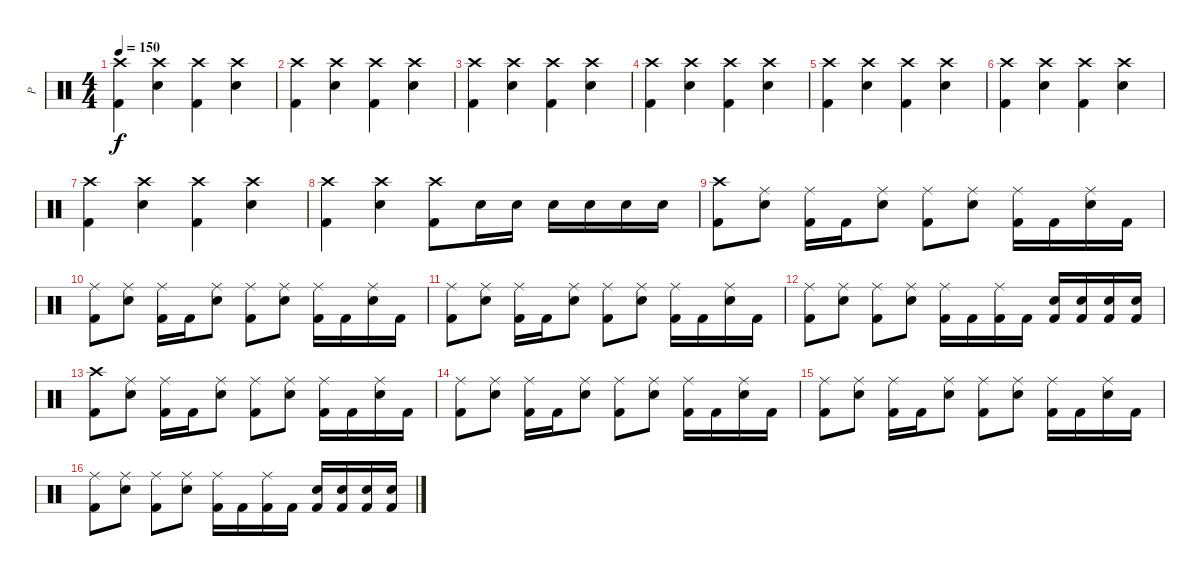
\track ("P" "P") {instrument percussion}
\staff {score}
\articulation defaults
\ts (4 4)
\tempo 150
\clef neutral
\ks c
("Crash high (hit)" "Kick (hit) 2").4{dy f} ("Crash high (hit)" "Electric Snare (hit)").4 ("Crash high (hit)" "Kick (hit) 2").4 ("Crash high (hit)" "Electric Snare (hit)").4 |
("Crash high (hit)" "Kick (hit) 2").4 ("Crash high (hit)" "Electric Snare (hit)").4 ("Crash high (hit)" "Kick (hit) 2").4 ("Crash high (hit)" "Electric Snare (hit)").4 |
("Crash high (hit)" "Kick (hit) 2").4 ("Crash high (hit)" "Electric Snare (hit)").4 ("Crash high (hit)" "Kick (hit) 2").4 ("Crash high (hit)" "Electric Snare (hit)").4 |
("Crash high (hit)" "Kick (hit) 2").4 ("Crash high (hit)" "Electric Snare (hit)").4 ("Crash high (hit)" "Kick (hit) 2").4 ("Crash high (hit)" "Electric Snare (hit)").4 |
("Crash high (hit)" "Kick (hit) 2").4 ("Crash high (hit)" "Electric Snare (hit)").4 ("Crash high (hit)" "Kick (hit) 2").4 ("Crash high (hit)" "Electric Snare (hit)").4 |
("Crash high (hit)" "Kick (hit) 2").4 ("Crash high (hit)" "Electric Snare (hit)").4 ("Crash high (hit)" "Kick (hit) 2").4 ("Crash high (hit)" "Electric Snare (hit)").4 |
("Crash high (hit)" "Kick (hit) 2").4 ("Crash high (hit)" "Electric Snare (hit)").4 ("Crash high (hit)" "Kick (hit) 2").4 ("Crash high (hit)" "Electric Snare (hit)").4 |
("Crash high (hit)" "Kick (hit) 2").4 ("Crash high (hit)" "Electric Snare (hit)").4 ("Crash high (hit)" "Kick (hit) 2").8 "Electric Snare (hit)".16 "Electric Snare (hit)".16 "Electric Snare (hit)".16 "Electric Snare (hit)".16 "Electric Snare (hit)".16 "Electric Snare (hit)".16 |
("Crash high (hit)" "Kick (hit) 2").8 ("Ride (middle)" "Electric Snare (hit)").8 ("Ride (middle)" "Kick (hit) 2").16 "Kick (hit) 2".16 ("Ride (middle)" "Electric Snare (hit)").8 ("Ride (middle)" "Kick (hit) 2").8 ("Ride (middle)" "Electric Snare (hit)").8 ("Ride (middle)" "Kick (hit) 2").16 "Kick (hit) 2".16 ("Ride (middle)" "Electric Snare (hit)").16 "Kick (hit) 2".16 |
("Ride (middle)" "Kick (hit) 2").8 ("Ride (middle)" "Electric Snare (hit)").8 ("Ride (middle)" "Kick (hit) 2").16 "Kick (hit) 2".16 ("Ride (middle)" "Electric Snare (hit)").8 ("Ride (middle)" "Kick (hit) 2").8 ("Ride (middle)" "Electric Snare (hit)").8 ("Ride (middle)" "Kick (hit) 2").16 "Kick (hit) 2".16 ("Ride (middle)" "Electric Snare (hit)").16 "Kick (hit) 2".16 |
("Ride (middle)" "Kick (hit) 2").8 ("Ride (middle)" "Electric Snare (hit)").8 ("Ride (middle)" "Kick (hit) 2").16 "Kick (hit) 2".16 ("Ride (middle)" "Electric Snare (hit)").8 ("Ride (middle)" "Kick (hit) 2").8 ("Ride (middle)" "Electric Snare (hit)").8 ("Ride (middle)" "Kick (hit) 2").16 "Kick (hit) 2".16 ("Ride (middle)" "Electric Snare (hit)").16 "Kick (hit) 2".16 |
("Ride (middle)" "Kick (hit) 2").8 ("Ride (middle)" "Electric Snare (hit)").8 ("Ride (middle)" "Kick (hit) 2").8 ("Ride (middle)" "Electric Snare (hit)").8 ("Ride (middle)" "Kick (hit) 2").16 "Kick (hit) 2".16 ("Ride (middle)" "Kick (hit) 2").16 "Kick (hit) 2".16 ("Electric Snare (hit)" "Kick (hit) 2").16 ("Electric Snare (hit)" "Kick (hit) 2").16 ("Electric Snare (hit)" "Kick (hit) 2").16 ("Electric Snare (hit)" "Kick (hit) 2").16 |
("Crash high (hit)" "Kick (hit) 2").8 ("Ride (middle)" "Electric Snare (hit)").8 ("Ride (middle)" "Kick (hit) 2").16 "Kick (hit) 2".16 ("Ride (middle)" "Electric Snare (hit)").8 ("Ride (middle)" "Kick (hit) 2").8 ("Ride (middle)" "Electric Snare (hit)").8 ("Ride (middle)" "Kick (hit) 2").16 "Kick (hit) 2".16 ("Ride (middle)" "Electric Snare (hit)").16 "Kick (hit) 2".16 |
("Ride (middle)" "Kick (hit) 2").8 ("Ride (middle)" "Electric Snare (hit)").8 ("Ride (middle)" "Kick (hit) 2").16 "Kick (hit) 2".16 ("Ride (middle)" "Electric Snare (hit)").8 ("Ride (middle)" "Kick (hit) 2").8 ("Ride (middle)" "Electric Snare (hit)").8 ("Ride (middle)" "Kick (hit) 2").16 "Kick (hit) 2".16 ("Ride (middle)" "Electric Snare (hit)").16 "Kick (hit) 2".16 |
("Ride (middle)" "Kick (hit) 2").8 ("Ride (middle)" "Electric Snare (hit)").8 ("Ride (middle)" "Kick (hit) 2").16 "Kick (hit) 2".16 ("Ride (middle)" "Electric Snare (hit)").8 ("Ride (middle)" "Kick (hit) 2").8 ("Ride (middle)" "Electric Snare (hit)").8 ("Ride (middle)" "Kick (hit) 2").16 "Kick (hit) 2".16 ("Ride (middle)" "Electric Snare (hit)").16 "Kick (hit) 2".16 |
("Ride (middle)" "Kick (hit) 2").8 ("Ride (middle)" "Electric Snare (hit)").8 ("Ride (middle)" "Kick (hit) 2").8 ("Ride (middle)" "Electric Snare (hit)").8 ("Ride (middle)" "Kick (hit) 2").16 "Kick (hit) 2".16 ("Ride (middle)" "Kick (hit) 2").16 "Kick (hit) 2".16 ("Electric Snare (hit)" "Kick (hit) 2").16 ("Electric Snare (hit)" "Kick (hit) 2").16 ("Electric Snare (hit)" "Kick (hit) 2").16 ("Electric Snare (hit)" "Kick (hit) 2").16
